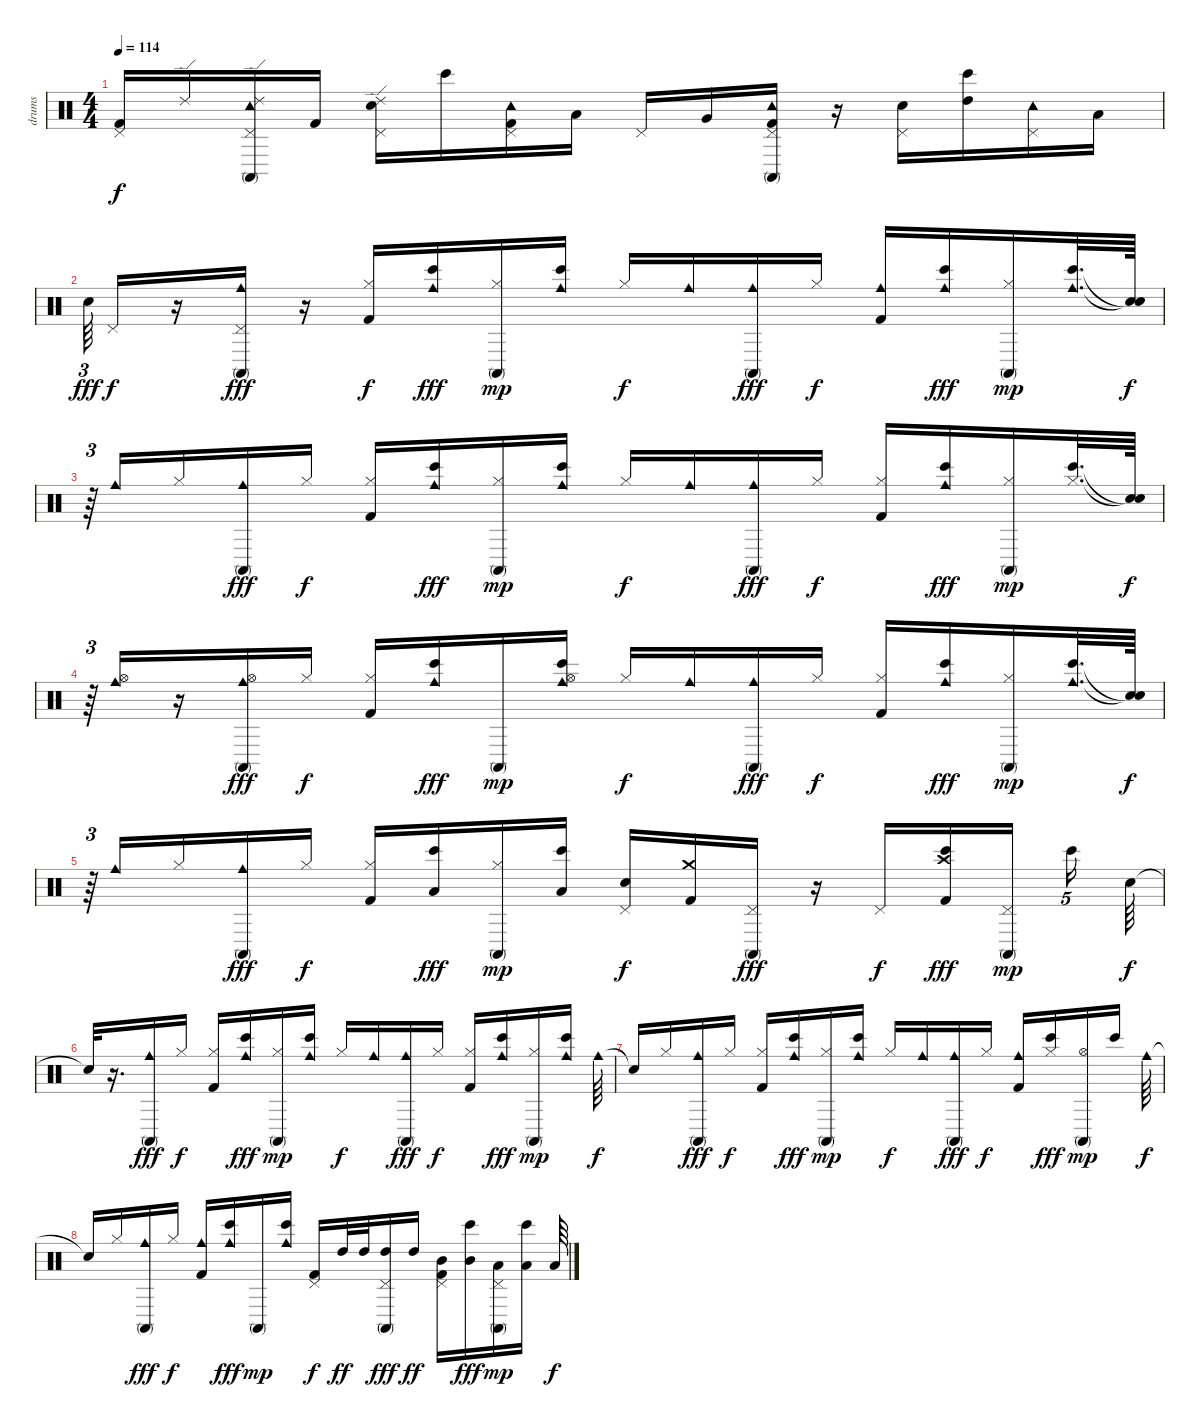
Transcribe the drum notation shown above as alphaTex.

\track ("drums" "drums") {instrument percussion}
\staff {score}
\articulation defaults
\ts (4 4)
\tempo 114
\clef neutral
\ks c
("Kick (hit) 2" "Pedal Hi-Hat (hit)").16{dy f} "Ride (edge) 2".16 ("Ride (edge) 2" "Pedal Hi-Hat (hit)" "Tambourine (hit)" "Conga high (mute)").16 "Kick (hit) 2".16 ("Ride (edge) 2" "Electric Snare (hit)" "Pedal Hi-Hat (hit)").16 "Bongo High (hit)".16 ("Kick (hit) 2" "Pedal Hi-Hat (hit)" "Tambourine (hit)").16 "Low Tom (hit)".16 "Pedal Hi-Hat (hit)".16 "Very Low Tom (hit)".16 ("Kick (hit) 2" "Pedal Hi-Hat (hit)" "Conga high (mute)" "Tambourine (hit)").16 r.16 ("Electric Snare (hit)" "Pedal Hi-Hat (hit)").16 ("High Tom (hit)" "Bongo High (hit)").16 ("Pedal Hi-Hat (hit)" "Tambourine (hit)").16 "Low Tom (hit)".16 |
"Electric Snare (hit)".64{tu (3 2) dy fff} "Pedal Hi-Hat (hit)".16{dy f} r.16 ("Conga high (mute)" "Cowbell medium (hit)" "Pedal Hi-Hat (hit)").16{dy fff} r.16 ("Hi-Hat (closed)" "Kick (hit) 2").16{dy f} ("Bongo High (hit)" "Cowbell medium (hit)").16{dy fff} ("Conga high (mute)" "Hi-Hat (closed)").16{dy mp} ("Bongo High (hit)" "Cowbell medium (hit)").16 "Hi-Hat (closed)".16{dy f} "Cowbell medium (hit)".16 ("Conga high (mute)" "Cowbell medium (hit)").16{dy fff} "Hi-Hat (closed)".16{dy f} ("Kick (hit) 2" "Cowbell medium (hit)").16 ("Bongo High (hit)" "Cowbell medium (hit)").16{dy fff} ("Conga high (mute)" "Hi-Hat (closed)").16{dy mp} ("Bongo High (hit)" "Cowbell medium (hit)").32{d} ("Snare (hit)"{t} "Snare (hit)"{t}).64{dy f} |
r.64{tu (3 2)} "Cowbell medium (hit)".16 "Hi-Hat (closed)".16 ("Conga high (mute)" "Cowbell medium (hit)").16{dy fff} "Hi-Hat (closed)".16{dy f} ("Kick (hit) 2" "Hi-Hat (closed)").16 ("Bongo High (hit)" "Cowbell medium (hit)").16{dy fff} ("Conga high (mute)" "Hi-Hat (closed)").16{dy mp} ("Bongo High (hit)" "Cowbell medium (hit)").16 "Hi-Hat (closed)".16{dy f} "Cowbell medium (hit)".16 ("Conga high (mute)" "Cowbell medium (hit)").16{dy fff} "Hi-Hat (closed)".16{dy f} ("Kick (hit) 2" "Hi-Hat (closed)").16 ("Bongo High (hit)" "Cowbell medium (hit)").16{dy fff} ("Conga high (mute)" "Hi-Hat (closed)").16{dy mp} ("Bongo High (hit)" "Hi-Hat (closed)").32{d} ("Snare (hit)"{t} "Snare (hit)"{t}).64{dy f} |
r.64{tu (3 2)} ("Cowbell medium (hit)" "Hi-Hat (open)").16 r.16 ("Cowbell medium (hit)" "Hi-Hat (open)" "Conga high (mute)").16{dy fff} "Hi-Hat (closed)".16{dy f} ("Kick (hit) 2" "Hi-Hat (closed)").16 ("Cowbell medium (hit)" "Bongo High (hit)").16{dy fff} "Conga high (mute)".16{dy mp} ("Cowbell medium (hit)" "Hi-Hat (open)" "Bongo High (hit)").16 "Hi-Hat (closed)".16{dy f} "Cowbell medium (hit)".16 ("Cowbell medium (hit)" "Conga high (mute)").16{dy fff} "Hi-Hat (closed)".16{dy f} ("Kick (hit) 2" "Hi-Hat (closed)").16 ("Cowbell medium (hit)" "Bongo High (hit)").16{dy fff} ("Hi-Hat (closed)" "Conga high (mute)").16{dy mp} ("Cowbell medium (hit)" "Bongo High (hit)").32{d} ("Snare (hit)"{t} "Snare (hit)"{t}).64{dy f} |
r.64{tu (3 2)} "Cowbell medium (hit)".16 "Hi-Hat (closed)".16 ("Conga high (mute)" "Cowbell medium (hit)").16{dy fff} "Hi-Hat (closed)".16{dy f} ("Kick (hit) 2" "Hi-Hat (closed)").16 ("Bongo High (hit)" "Low Tom (hit)").16{dy fff} ("Conga high (mute)" "Hi-Hat (closed)").16{dy mp} ("Bongo High (hit)" "Low Tom (hit)").16 ("Pedal Hi-Hat (hit)" "Electric Snare (hit)").16{dy f} ("Kick (hit) 2" "Crash medium (hit)").16 ("Conga high (mute)" "Pedal Hi-Hat (hit)").16{dy fff} r.16 "Pedal Hi-Hat (hit)".16{dy f} ("Bongo High (hit)" "Crash high (hit)" "Kick (hit) 2").16{dy fff} ("Conga high (mute)" "Pedal Hi-Hat (hit)").16{dy mp} "Bongo High (hit)".16{tu (5 4)} "Electric Snare (hit)".64{dy f} |
"Snare (hit)"{t}.32 r.16{d} ("Conga high (mute)" "Cowbell medium (hit)").16{dy fff} "Hi-Hat (closed)".16{dy f} ("Kick (hit) 2" "Hi-Hat (closed)").16 ("Bongo High (hit)" "Cowbell medium (hit)").16{dy fff} ("Conga high (mute)" "Hi-Hat (closed)").16{dy mp} ("Bongo High (hit)" "Cowbell medium (hit)").16 "Hi-Hat (closed)".16{dy f} "Cowbell medium (hit)".16 ("Conga high (mute)" "Cowbell medium (hit)").16{dy fff} "Hi-Hat (closed)".16{dy f} ("Kick (hit) 2" "Hi-Hat (closed)").16 ("Bongo High (hit)" "Cowbell medium (hit)").16{dy fff} ("Conga high (mute)" "Hi-Hat (closed)").16{dy mp} ("Bongo High (hit)" "Cowbell medium (hit)").16 "Cowbell medium (hit)".64{dy f} |
"Snare (hit)"{t}.16 "Hi-Hat (closed)".16 ("Cowbell medium (hit)" "Conga high (mute)").16{dy fff} "Hi-Hat (closed)".16{dy f} ("Kick (hit) 2" "Hi-Hat (closed)").16 ("Cowbell medium (hit)" "Bongo High (hit)").16{dy fff} ("Hi-Hat (closed)" "Conga high (mute)").16{dy mp} ("Cowbell medium (hit)" "Bongo High (hit)").16 "Hi-Hat (closed)".16{dy f} "Cowbell medium (hit)".16 ("Cowbell medium (hit)" "Conga high (mute)").16{dy fff} "Hi-Hat (closed)".16{dy f} ("Kick (hit) 2" "Cowbell medium (hit)").16 ("Hi-Hat (closed)" "Bongo High (hit)").16{dy fff} ("Hi-Hat (open)" "Conga high (mute)").16{dy mp} "Bongo High (hit)".16 "Cowbell medium (hit)".64{dy f} |
"Snare (hit)"{t}.16 "Hi-Hat (closed)".16 ("Conga high (mute)" "Cowbell medium (hit)").16{dy fff} "Hi-Hat (closed)".16{dy f} ("Kick (hit) 2" "Cowbell medium (hit)").16 ("Bongo High (hit)" "Cowbell medium (hit)").16{dy fff} "Conga high (mute)".16{dy mp} ("Bongo High (hit)" "Cowbell medium (hit)").16 ("Pedal Hi-Hat (hit)" "Kick (hit) 2").16{dy f} "High Tom (hit)".32{dy ff} "High Tom (hit)".32 ("High Tom (hit)" "Conga high (mute)" "Pedal Hi-Hat (hit)").16{dy fff} "High Tom (hit)".16{dy ff} ("Mid Tom (hit)" "Kick (hit) 2" "Pedal Hi-Hat (hit)").16 ("Mid Tom (hit)" "Bongo High (hit)").16{dy fff} ("Low Tom (hit)" "Conga high (mute)" "Pedal Hi-Hat (hit)").16{dy mp} ("Low Tom (hit)" "Bongo High (hit)").16 "Low Tom (hit)".64{dy f}
